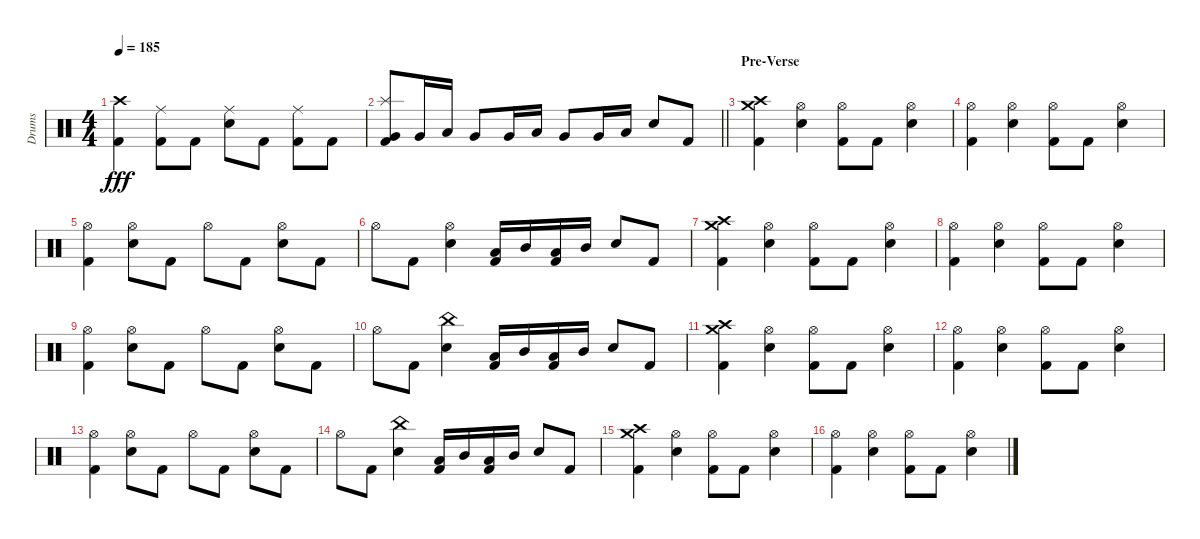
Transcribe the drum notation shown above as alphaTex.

\track ("Drums" "Drums") {instrument percussion}
\staff {score}
\articulation defaults
\ts (4 4)
\tempo 185
\clef neutral
\ks c
("Crash high (hit)" "Kick (hit) 2").4{dy fff} ("Ride (middle)" "Kick (hit) 2").8 "Kick (hit) 2".8 ("Ride (middle)" "Electric Snare (hit)").8 "Kick (hit) 2".8 ("Ride (middle)" "Kick (hit) 2").8 "Kick (hit) 2".8 |
\barLineRight lightlight
("Splash (hit)" "Very Low Tom (hit)" "Kick (hit) 2").8 "Very Low Tom (hit)".16 "Low Floor Tom (hit)".16 "Very Low Tom (hit)".8 "Very Low Tom (hit)".16 "Low Floor Tom (hit)".16 "Very Low Tom (hit)".8 "Very Low Tom (hit)".16 "Low Floor Tom (hit)".16 "Electric Snare (hit)".8 "Kick (hit) 2".8 |
\section ("" "Pre-Verse")
("Crash high (hit)" "Crash medium (hit)" "Kick (hit) 2").4 ("Hi-Hat (open)" "Electric Snare (hit)").4 ("Hi-Hat (open)" "Kick (hit) 2").8 "Kick (hit) 2".8 ("Hi-Hat (open)" "Electric Snare (hit)").4 |
("Hi-Hat (open)" "Kick (hit) 2").4 ("Hi-Hat (open)" "Electric Snare (hit)").4 ("Hi-Hat (open)" "Kick (hit) 2").8 "Kick (hit) 2".8 ("Hi-Hat (open)" "Electric Snare (hit)").4 |
("Hi-Hat (open)" "Kick (hit) 2").4 ("Hi-Hat (open)" "Electric Snare (hit)").8 "Kick (hit) 2".8 "Hi-Hat (open)".8 "Kick (hit) 2".8 ("Hi-Hat (open)" "Electric Snare (hit)").8 "Kick (hit) 2".8 |
"Hi-Hat (open)".8 "Kick (hit) 2".8 ("Hi-Hat (open)" "Electric Snare (hit)").4 ("Low Tom (hit)" "Kick (hit) 2").16 "Mid Tom (hit)".16 ("Low Tom (hit)" "Kick (hit) 2").16 "Mid Tom (hit)".16 "Electric Snare (hit)".8 "Kick (hit) 2".8 |
("Crash high (hit)" "Crash medium (hit)" "Kick (hit) 2").4 ("Hi-Hat (open)" "Electric Snare (hit)").4 ("Hi-Hat (open)" "Kick (hit) 2").8 "Kick (hit) 2".8 ("Hi-Hat (open)" "Electric Snare (hit)").4 |
("Hi-Hat (open)" "Kick (hit) 2").4 ("Hi-Hat (open)" "Electric Snare (hit)").4 ("Hi-Hat (open)" "Kick (hit) 2").8 "Kick (hit) 2".8 ("Hi-Hat (open)" "Electric Snare (hit)").4 |
("Hi-Hat (open)" "Kick (hit) 2").4 ("Hi-Hat (open)" "Electric Snare (hit)").8 "Kick (hit) 2".8 "Hi-Hat (open)".8 "Kick (hit) 2".8 ("Hi-Hat (open)" "Electric Snare (hit)").8 "Kick (hit) 2".8 |
"Hi-Hat (open)".8 "Kick (hit) 2".8 ("China (hit)" "Electric Snare (hit)").4 ("Low Tom (hit)" "Kick (hit) 2").16 "Mid Tom (hit)".16 ("Low Tom (hit)" "Kick (hit) 2").16 "Mid Tom (hit)".16 "Electric Snare (hit)".8 "Kick (hit) 2".8 |
("Crash high (hit)" "Crash medium (hit)" "Kick (hit) 2").4 ("Hi-Hat (open)" "Electric Snare (hit)").4 ("Hi-Hat (open)" "Kick (hit) 2").8 "Kick (hit) 2".8 ("Hi-Hat (open)" "Electric Snare (hit)").4 |
("Hi-Hat (open)" "Kick (hit) 2").4 ("Hi-Hat (open)" "Electric Snare (hit)").4 ("Hi-Hat (open)" "Kick (hit) 2").8 "Kick (hit) 2".8 ("Hi-Hat (open)" "Electric Snare (hit)").4 |
("Hi-Hat (open)" "Kick (hit) 2").4 ("Hi-Hat (open)" "Electric Snare (hit)").8 "Kick (hit) 2".8 "Hi-Hat (open)".8 "Kick (hit) 2".8 ("Hi-Hat (open)" "Electric Snare (hit)").8 "Kick (hit) 2".8 |
"Hi-Hat (open)".8 "Kick (hit) 2".8 ("China (hit)" "Electric Snare (hit)").4 ("Low Tom (hit)" "Kick (hit) 2").16 "Mid Tom (hit)".16 ("Low Tom (hit)" "Kick (hit) 2").16 "Mid Tom (hit)".16 "Electric Snare (hit)".8 "Kick (hit) 2".8 |
("Crash high (hit)" "Crash medium (hit)" "Kick (hit) 2").4 ("Hi-Hat (open)" "Electric Snare (hit)").4 ("Hi-Hat (open)" "Kick (hit) 2").8 "Kick (hit) 2".8 ("Hi-Hat (open)" "Electric Snare (hit)").4 |
("Hi-Hat (open)" "Kick (hit) 2").4 ("Hi-Hat (open)" "Electric Snare (hit)").4 ("Hi-Hat (open)" "Kick (hit) 2").8 "Kick (hit) 2".8 ("Hi-Hat (open)" "Electric Snare (hit)").4
